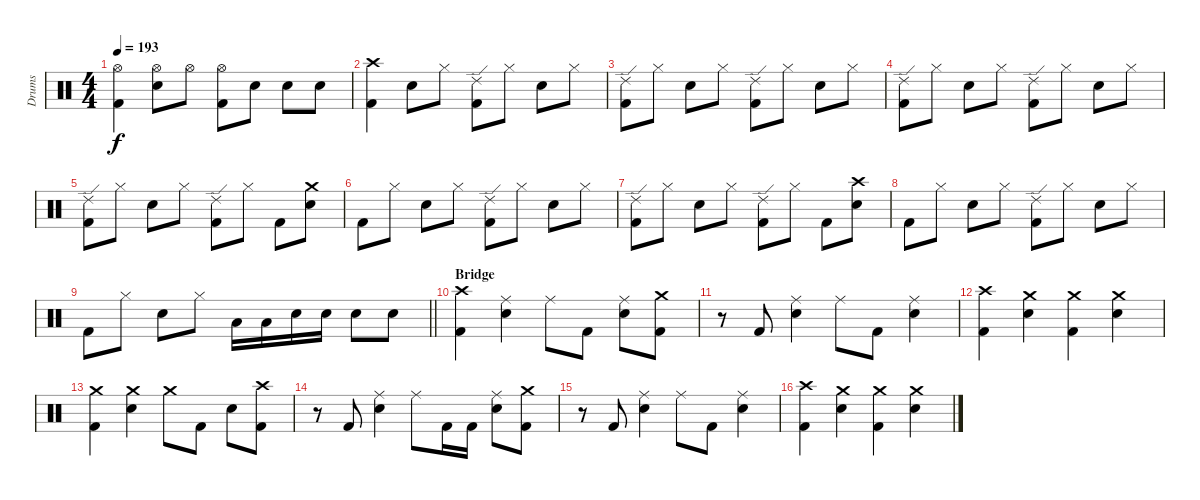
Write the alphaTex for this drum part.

\track ("Drums" "Drums") {instrument percussion}
\staff {score}
\articulation defaults
\ts (4 4)
\tempo 193
\clef neutral
\ks c
("Hi-Hat (open)" "Kick (hit) 2").4{dy f} ("Hi-Hat (open)" "Snare (hit) 2").8 "Hi-Hat (open)".8 ("Hi-Hat (open)" "Kick (hit) 2").8 "Snare (hit) 2".8 "Snare (hit) 2".8 "Snare (hit) 2".8 |
("Crash high (hit)" "Kick (hit) 2").4 "Snare (hit) 2".8 "Hi-Hat (closed)".8 ("Ride (edge) 2" "Kick (hit) 2").8 "Hi-Hat (closed)".8 "Snare (hit) 2".8 "Hi-Hat (closed)".8 |
("Ride (edge) 2" "Kick (hit) 2").8 "Hi-Hat (closed)".8 "Snare (hit) 2".8 "Hi-Hat (closed)".8 ("Ride (edge) 2" "Kick (hit) 2").8 "Hi-Hat (closed)".8 "Snare (hit) 2".8 "Hi-Hat (closed)".8 |
("Ride (edge) 2" "Kick (hit) 2").8 "Hi-Hat (closed)".8 "Snare (hit) 2".8 "Hi-Hat (closed)".8 ("Ride (edge) 2" "Kick (hit) 2").8 "Hi-Hat (closed)".8 "Snare (hit) 2".8 "Hi-Hat (closed)".8 |
("Ride (edge) 2" "Kick (hit) 2").8 "Hi-Hat (closed)".8 "Snare (hit) 2".8 "Hi-Hat (closed)".8 ("Ride (edge) 2" "Kick (hit) 2").8 "Hi-Hat (closed)".8 "Kick (hit) 2".8 ("Crash medium (hit)" "Snare (hit) 2").8 |
"Kick (hit) 2".8 "Hi-Hat (closed)".8 "Snare (hit) 2".8 "Hi-Hat (closed)".8 ("Ride (edge) 2" "Kick (hit) 2").8 "Hi-Hat (closed)".8 "Snare (hit) 2".8 "Hi-Hat (closed)".8 |
("Ride (edge) 2" "Kick (hit) 2").8 "Hi-Hat (closed)".8 "Snare (hit) 2".8 "Hi-Hat (closed)".8 ("Ride (edge) 2" "Kick (hit) 2").8 "Hi-Hat (closed)".8 "Kick (hit) 2".8 ("Crash high (hit)" "Snare (hit) 2").8 |
"Kick (hit) 2".8 "Hi-Hat (closed)".8 "Snare (hit) 2".8 "Hi-Hat (closed)".8 ("Ride (edge) 2" "Kick (hit) 2").8 "Hi-Hat (closed)".8 "Snare (hit) 2".8 "Hi-Hat (closed)".8 |
\barLineRight lightlight "Kick (hit) 2".8 "Hi-Hat (closed)".8 "Snare (hit) 2".8 "Hi-Hat (closed)".8 "Low Tom (hit)".16 "Low Tom (hit)".16 "Snare (hit) 2".16 "Snare (hit) 2".16 "Snare (hit) 2".8 "Snare (hit) 2".8
|
\section ("" "Bridge")
("Crash high (hit)" "Kick (hit) 2").4 ("Ride (middle)" "Snare (hit) 2").4 "Ride (middle)".8 "Kick (hit) 2".8 ("Ride (middle)" "Snare (hit) 2").8 ("Crash medium (hit)" "Kick (hit) 2").8 |
r.8 "Kick (hit) 2".8 ("Ride (middle)" "Snare (hit) 2").4 "Ride (middle)".8 "Kick (hit) 2".8 ("Ride (middle)" "Snare (hit) 2").4 |
("Crash high (hit)" "Kick (hit) 2").4 ("Crash medium (hit)" "Snare (hit) 2").4 ("Crash medium (hit)" "Kick (hit) 2").4 ("Crash medium (hit)" "Snare (hit) 2").4 |
("Crash medium (hit)" "Kick (hit) 2").4 ("Crash medium (hit)" "Snare (hit) 2").4 "Crash medium (hit)".8 "Kick (hit) 2".8 "Snare (hit) 2".8 ("Crash high (hit)" "Kick (hit) 2").8 |
r.8 "Kick (hit) 2".8 ("Ride (middle)" "Snare (hit) 2").4 "Ride (middle)".8 "Kick (hit) 2".16 "Kick (hit) 2".16 ("Ride (middle)" "Snare (hit) 2").8 ("Crash medium (hit)" "Kick (hit) 2").8 |
r.8 "Kick (hit) 2".8 ("Ride (middle)" "Snare (hit) 2").4 "Ride (middle)".8 "Kick (hit) 2".8 ("Ride (middle)" "Snare (hit) 2").4 |
("Crash high (hit)" "Kick (hit) 2").4 ("Crash medium (hit)" "Snare (hit) 2").4 ("Crash medium (hit)" "Kick (hit) 2").4 ("Crash medium (hit)" "Snare (hit) 2").4
